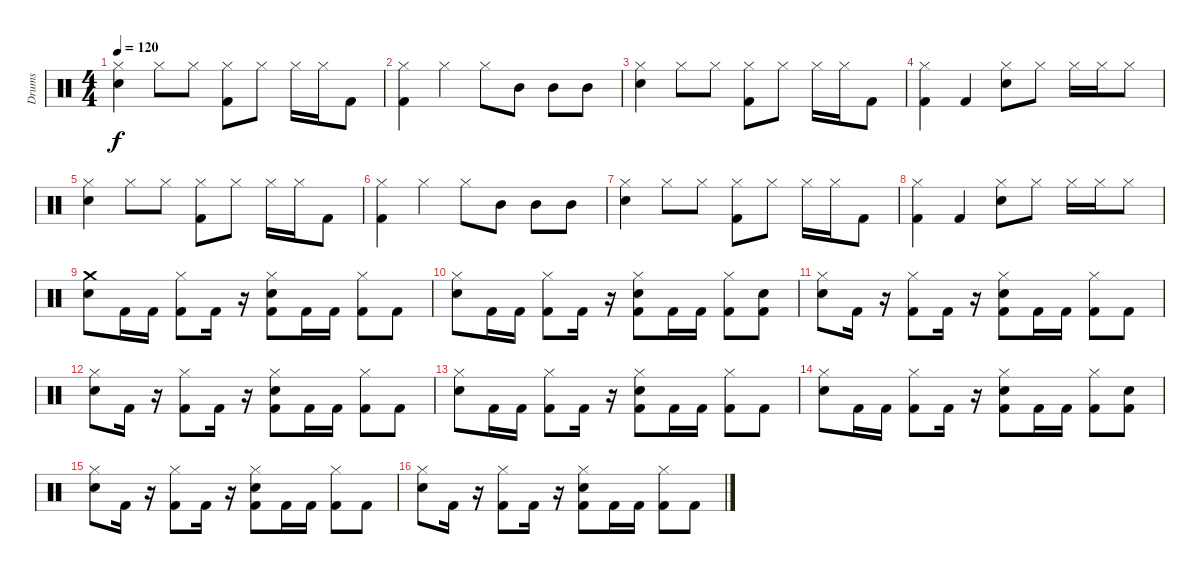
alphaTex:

\track ("Drums" "Drums") {instrument percussion}
\staff {score}
\articulation defaults
\ts (4 4)
\tempo 120
\clef neutral
\ks c
("Hi-Hat (closed)" "Snare (hit) 2").4{dy f} "Hi-Hat (closed)".8 "Hi-Hat (closed)".8 ("Hi-Hat (closed)" "Kick (hit) 2").8 "Hi-Hat (closed)".8 "Hi-Hat (closed)".16 "Hi-Hat (closed)".16 "Kick (hit) 2".8 |
("Hi-Hat (closed)" "Kick (hit) 2").4 "Hi-Hat (closed)".4 "Hi-Hat (closed)".8 "Mid Tom (hit)".8 "Mid Tom (hit)".8 "Mid Tom (hit)".8 |
("Hi-Hat (closed)" "Snare (hit) 2").4 "Hi-Hat (closed)".8 "Hi-Hat (closed)".8 ("Hi-Hat (closed)" "Kick (hit) 2").8 "Hi-Hat (closed)".8 "Hi-Hat (closed)".16 "Hi-Hat (closed)".16 "Kick (hit) 2".8 |
("Hi-Hat (closed)" "Kick (hit) 2").4 "Kick (hit) 2".4 ("Hi-Hat (closed)" "Snare (hit) 2").8 "Hi-Hat (closed)".8 "Hi-Hat (closed)".16 "Hi-Hat (closed)".16 "Hi-Hat (closed)".8 |
("Hi-Hat (closed)" "Snare (hit) 2").4 "Hi-Hat (closed)".8 "Hi-Hat (closed)".8 ("Hi-Hat (closed)" "Kick (hit) 2").8 "Hi-Hat (closed)".8 "Hi-Hat (closed)".16 "Hi-Hat (closed)".16 "Kick (hit) 2".8 |
("Hi-Hat (closed)" "Kick (hit) 2").4 "Hi-Hat (closed)".4 "Hi-Hat (closed)".8 "Mid Tom (hit)".8 "Mid Tom (hit)".8 "Mid Tom (hit)".8 |
("Hi-Hat (closed)" "Snare (hit) 2").4 "Hi-Hat (closed)".8 "Hi-Hat (closed)".8 ("Hi-Hat (closed)" "Kick (hit) 2").8 "Hi-Hat (closed)".8 "Hi-Hat (closed)".16 "Hi-Hat (closed)".16 "Kick (hit) 2".8 |
("Hi-Hat (closed)" "Kick (hit) 2").4 "Kick (hit) 2".4 ("Hi-Hat (closed)" "Snare (hit) 2").8 "Hi-Hat (closed)".8 "Hi-Hat (closed)".16 "Hi-Hat (closed)".16 "Hi-Hat (closed)".8 |
("Crash medium (hit)" "Snare (hit) 2").8 "Kick (hit) 2".16 "Kick (hit) 2".16 ("Hi-Hat (closed)" "Kick (hit) 2").8 "Kick (hit) 2".16 r.16 ("Hi-Hat (closed)" "Snare (hit) 2" "Kick (hit) 2").8 "Kick (hit) 2".16 "Kick (hit) 2".16 ("Hi-Hat (closed)" "Kick (hit) 2").8 "Kick (hit) 2".8 |
("Hi-Hat (closed)" "Snare (hit) 2").8 "Kick (hit) 2".16 "Kick (hit) 2".16 ("Hi-Hat (closed)" "Kick (hit) 2").8 "Kick (hit) 2".16 r.16 ("Hi-Hat (closed)" "Snare (hit) 2" "Kick (hit) 2").8 "Kick (hit) 2".16 "Kick (hit) 2".16 ("Hi-Hat (closed)" "Kick (hit) 2").8 ("Snare (hit) 2" "Kick (hit) 2").8 |
("Hi-Hat (closed)" "Snare (hit) 2").8 "Kick (hit) 2".16 r.16 ("Hi-Hat (closed)" "Kick (hit) 2").8 "Kick (hit) 2".16 r.16 ("Hi-Hat (closed)" "Snare (hit) 2" "Kick (hit) 2").8 "Kick (hit) 2".16 "Kick (hit) 2".16 ("Hi-Hat (closed)" "Kick (hit) 2").8 "Kick (hit) 2".8 |
("Hi-Hat (closed)" "Snare (hit) 2").8 "Kick (hit) 2".16 r.16 ("Hi-Hat (closed)" "Kick (hit) 2").8 "Kick (hit) 2".16 r.16 ("Hi-Hat (closed)" "Snare (hit) 2" "Kick (hit) 2").8 "Kick (hit) 2".16 "Kick (hit) 2".16 ("Hi-Hat (closed)" "Kick (hit) 2").8 "Kick (hit) 2".8 |
("Hi-Hat (closed)" "Snare (hit) 2").8 "Kick (hit) 2".16 "Kick (hit) 2".16 ("Hi-Hat (closed)" "Kick (hit) 2").8 "Kick (hit) 2".16 r.16 ("Hi-Hat (closed)" "Snare (hit) 2" "Kick (hit) 2").8 "Kick (hit) 2".16 "Kick (hit) 2".16 ("Hi-Hat (closed)" "Kick (hit) 2").8 "Kick (hit) 2".8 |
("Hi-Hat (closed)" "Snare (hit) 2").8 "Kick (hit) 2".16 "Kick (hit) 2".16 ("Hi-Hat (closed)" "Kick (hit) 2").8 "Kick (hit) 2".16 r.16 ("Hi-Hat (closed)" "Snare (hit) 2" "Kick (hit) 2").8 "Kick (hit) 2".16 "Kick (hit) 2".16 ("Hi-Hat (closed)" "Kick (hit) 2").8 ("Snare (hit) 2" "Kick (hit) 2").8 |
("Hi-Hat (closed)" "Snare (hit) 2").8 "Kick (hit) 2".16 r.16 ("Hi-Hat (closed)" "Kick (hit) 2").8 "Kick (hit) 2".16 r.16 ("Hi-Hat (closed)" "Snare (hit) 2" "Kick (hit) 2").8 "Kick (hit) 2".16 "Kick (hit) 2".16 ("Hi-Hat (closed)" "Kick (hit) 2").8 "Kick (hit) 2".8 |
("Hi-Hat (closed)" "Snare (hit) 2").8 "Kick (hit) 2".16 r.16 ("Hi-Hat (closed)" "Kick (hit) 2").8 "Kick (hit) 2".16 r.16 ("Hi-Hat (closed)" "Snare (hit) 2" "Kick (hit) 2").8 "Kick (hit) 2".16 "Kick (hit) 2".16 ("Hi-Hat (closed)" "Kick (hit) 2").8 "Kick (hit) 2".8
